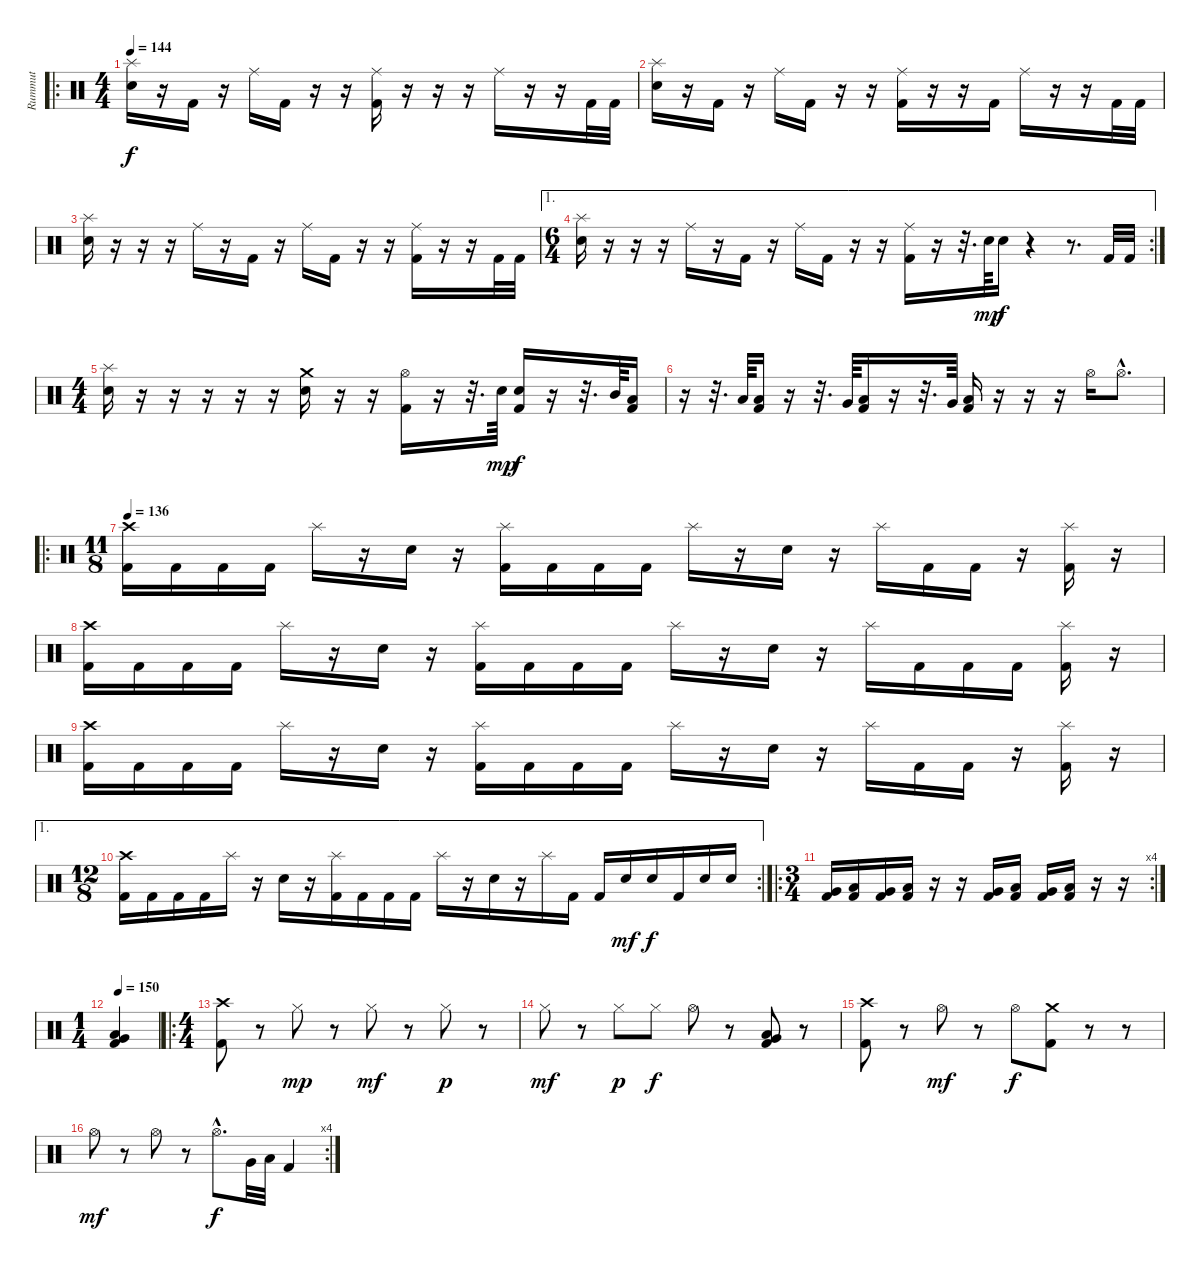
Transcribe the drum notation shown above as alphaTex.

\track ("Rummut" "Rummut") {instrument percussion}
\staff {score}
\articulation defaults
\ro
\ts (4 4)
\tempo 144
\clef neutral
\ks c
("Splash (hit)" "Electric Snare (hit)").16{dy f} r.16 "Kick (hit) 2".16 r.16 "Ride (middle)".16 "Kick (hit) 2".16 r.16 r.16 ("Ride (middle)" "Kick (hit) 2").16 r.16 r.16 r.16 "Ride (middle)".16 r.16 r.16 "Kick (hit) 2".32 "Kick (hit) 2".32 |
("Splash (hit)" "Electric Snare (hit)").16 r.16 "Kick (hit) 2".16 r.16 "Ride (middle)".16 "Kick (hit) 2".16 r.16 r.16 ("Ride (middle)" "Kick (hit) 2").16 r.16 r.16 "Kick (hit) 2".16 "Ride (middle)".16 r.16 r.16 "Kick (hit) 2".32 "Kick (hit) 2".32 |
("Splash (hit)" "Electric Snare (hit)").16 r.16 r.16 r.16 "Ride (middle)".16 r.16 "Kick (hit) 2".16 r.16 "Ride (middle)".16 "Kick (hit) 2".16 r.16 r.16 ("Ride (middle)" "Kick (hit) 2").16 r.16 r.16 "Kick (hit) 2".32 "Kick (hit) 2".32 |
\ae 1
\rc 2
\ts (6 4)
("Splash (hit)" "Electric Snare (hit)").16 r.16 r.16 r.16 "Ride (middle)".16 r.16 "Kick (hit) 2".16 r.16 "Ride (middle)".16 "Kick (hit) 2".16 r.16 r.16 ("Ride (middle)" "Kick (hit) 2").16 r.16 r.32{d} "Electric Snare (hit)".64{dy mp} "Electric Snare (hit)".16{dy f} r.4 r.8{d} "Kick (hit) 2".32 "Kick (hit) 2".32 |
\ts (4 4)
("Splash (hit)" "Electric Snare (hit)").16 r.16 r.16 r.16 r.16 r.16 ("Crash medium (hit)" "Electric Snare (hit)").16 r.16 r.16 ("Hi-Hat (open)" "Kick (hit) 2").16 r.16 r.32{d} "Electric Snare (hit)".64{dy mp} ("Electric Snare (hit)" "Kick (hit) 2").16{dy f} r.16 r.32{d} "Mid Tom (hit)".64 ("Low Floor Tom (hit)" "Kick (hit) 2").16 |
r.16 r.32{d} "Low Tom (hit)".64 ("Low Floor Tom (hit)" "Kick (hit) 2").16 r.16 r.32{d} "Very Low Tom (hit)".64 ("Low Floor Tom (hit)" "Kick (hit) 2").16 r.16 r.32{d} "Very Low Tom (hit)".64 ("Low Floor Tom (hit)" "Kick (hit) 2").16 r.16 r.16 r.16 "Hi-Hat (open)".16 "Hi-Hat (open)"{hac}.8{d} |
\ro
\ts (11 8)
\tempo 136
("Crash high (hit)" "Kick (hit) 2").16 "Kick (hit) 2".16 "Kick (hit) 2".16 "Kick (hit) 2".16 "Splash (hit)".16 r.16 "Electric Snare (hit)".16 r.16 ("Splash (hit)" "Kick (hit) 2").16 "Kick (hit) 2".16 "Kick (hit) 2".16 "Kick (hit) 2".16 "Splash (hit)".16 r.16 "Electric Snare (hit)".16 r.16 "Splash (hit)".16 "Kick (hit) 2".16 "Kick (hit) 2".16 r.16 ("Splash (hit)" "Kick (hit) 2").16 r.16 |
("Crash high (hit)" "Kick (hit) 2").16 "Kick (hit) 2".16 "Kick (hit) 2".16 "Kick (hit) 2".16 "Splash (hit)".16 r.16 "Electric Snare (hit)".16 r.16 ("Splash (hit)" "Kick (hit) 2").16 "Kick (hit) 2".16 "Kick (hit) 2".16 "Kick (hit) 2".16 "Splash (hit)".16 r.16 "Electric Snare (hit)".16 r.16 "Splash (hit)".16 "Kick (hit) 2".16 "Kick (hit) 2".16 "Kick (hit) 2".16 ("Splash (hit)" "Kick (hit) 2").16 r.16 |
("Crash high (hit)" "Kick (hit) 2").16 "Kick (hit) 2".16 "Kick (hit) 2".16 "Kick (hit) 2".16 "Splash (hit)".16 r.16 "Electric Snare (hit)".16 r.16 ("Splash (hit)" "Kick (hit) 2").16 "Kick (hit) 2".16 "Kick (hit) 2".16 "Kick (hit) 2".16 "Splash (hit)".16 r.16 "Electric Snare (hit)".16 r.16 "Splash (hit)".16 "Kick (hit) 2".16 "Kick (hit) 2".16 r.16 ("Splash (hit)" "Kick (hit) 2").16 r.16 |
\ae 1
\rc 2
\ts (12 8)
("Crash high (hit)" "Kick (hit) 2").16 "Kick (hit) 2".16 "Kick (hit) 2".16 "Kick (hit) 2".16 "Splash (hit)".16 r.16 "Electric Snare (hit)".16 r.16 ("Splash (hit)" "Kick (hit) 2").16 "Kick (hit) 2".16 "Kick (hit) 2".16 "Kick (hit) 2".16 "Splash (hit)".16 r.16 "Electric Snare (hit)".16 r.16 "Splash (hit)".16 "Kick (hit) 2".16 "Kick (hit) 2".16 "Electric Snare (hit)".16{dy mf} "Electric Snare (hit)".16{dy f} "Kick (hit) 2".16 "Electric Snare (hit)".16 "Electric Snare (hit)".16 |
\ro
\rc 4
\ts (3 4)
("Very Low Tom (hit)" "Kick (hit) 2").16 ("Low Tom (hit)" "Kick (hit) 2").16 ("Very Low Tom (hit)" "Kick (hit) 2").16 ("Low Tom (hit)" "Kick (hit) 2").16 r.16 r.16 ("Very Low Tom (hit)" "Kick (hit) 2").16 ("Low Tom (hit)" "Kick (hit) 2").16 ("Very Low Tom (hit)" "Kick (hit) 2").16 ("Low Tom (hit)" "Kick (hit) 2").16 r.16 r.16 |
\ts (1 4)
\tempo 150
("Very Low Tom (hit)" "Low Floor Tom (hit)" "Kick (hit) 2").4 |
\ro
\ts (4 4)
("Crash high (hit)" "Kick (hit) 2").8 r.8 "Hi-Hat (closed)".8{dy mp} r.8 "Hi-Hat (closed)".8{dy mf} r.8 "Hi-Hat (closed)".8{dy p} r.8 |
"Hi-Hat (closed)".8{dy mf} r.8 "Hi-Hat (closed)".8{dy p} "Hi-Hat (closed)".8{dy f} "Hi-Hat (open)".8 r.8 ("Very Low Tom (hit)" "Low Floor Tom (hit)" "Kick (hit) 2").8 r.8 |
("Crash high (hit)" "Kick (hit) 2").8 r.8 "Hi-Hat (open)".8{dy mf} r.8 "Hi-Hat (open)".8{dy f} ("Crash medium (hit)" "Kick (hit) 2").8 r.8 r.8 |
\rc 4 "Hi-Hat (open)".8{dy mf}
r.8 "Hi-Hat (open)".8 r.8 "Hi-Hat (open)"{hac}.8{d dy f} "Very Low Tom (hit)".32 "Low Floor Tom (hit)".32 "Kick (hit) 2".4
